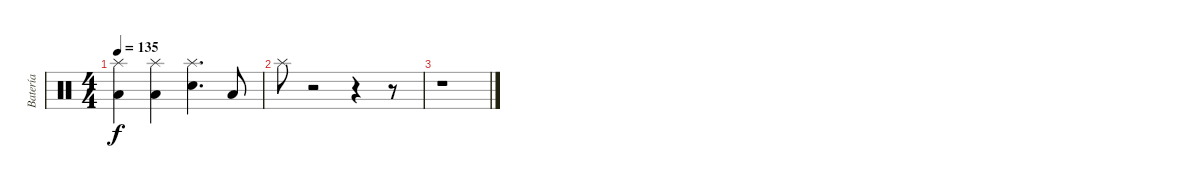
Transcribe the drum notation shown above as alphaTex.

\track ("Batería" "Batería") {instrument percussion}
\staff {score}
\articulation defaults
\ts (4 4)
\tempo 135
\clef neutral
\ks c
("Splash (hit)" "Low Floor Tom (hit)").4{dy f} ("Splash (hit)" "Low Floor Tom (hit)").4 ("Splash (hit)" "Electric Snare (hit)").4{d} "Low Floor Tom (hit)".8 |
"Splash (hit)".8 r.2 r.4 r.8 |
r.1
